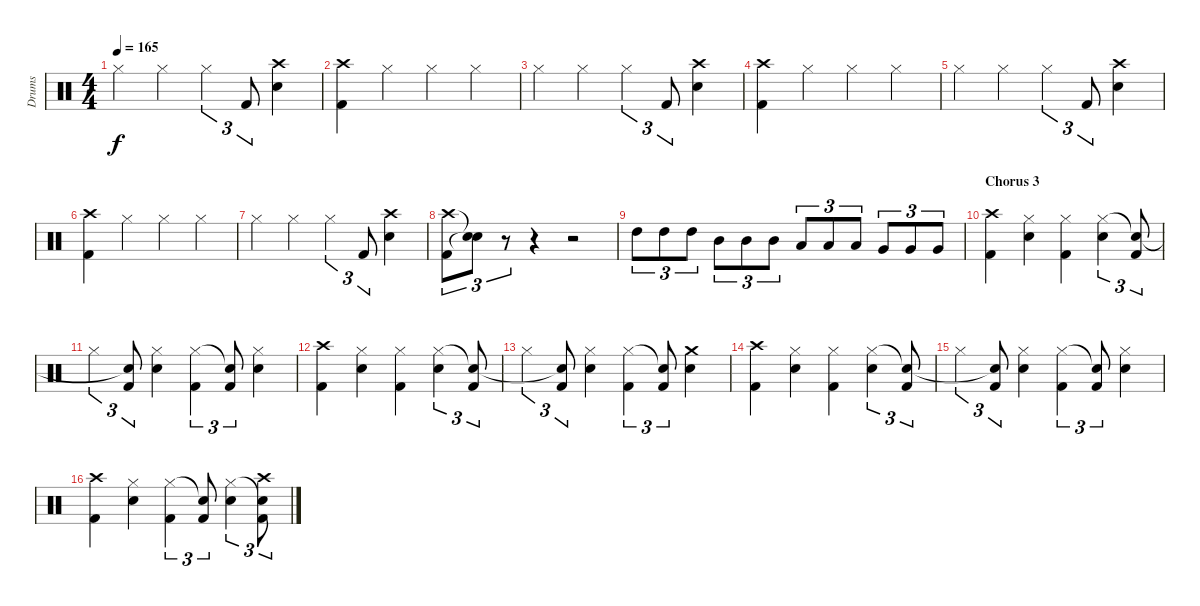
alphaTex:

\track ("Drums" "Drums") {instrument percussion}
\staff {score}
\articulation defaults
\ts (4 4)
\tempo 165
\clef neutral
\ks c "Hi-Hat (closed)".4{dy f} "Hi-Hat (closed)".4 "Hi-Hat (closed)".4{tu (3 2)} "Kick (hit) 2".8{tu (3 2)}
("Snare (hit) 2" "Crash high (hit)").4 |
("Kick (hit) 2" "Crash high (hit)").4 "Hi-Hat (closed)".4 "Hi-Hat (closed)".4 "Hi-Hat (closed)".4 |
"Hi-Hat (closed)".4 "Hi-Hat (closed)".4 "Hi-Hat (closed)".4{tu (3 2)} "Kick (hit) 2".8{tu (3 2)} ("Snare (hit) 2" "Crash high (hit)").4 |
("Kick (hit) 2" "Crash high (hit)").4 "Hi-Hat (closed)".4 "Hi-Hat (closed)".4 "Hi-Hat (closed)".4 |
"Hi-Hat (closed)".4 "Hi-Hat (closed)".4 "Hi-Hat (closed)".4{tu (3 2)} "Kick (hit) 2".8{tu (3 2)} ("Snare (hit) 2" "Crash high (hit)").4 |
("Kick (hit) 2" "Crash high (hit)").4 "Hi-Hat (closed)".4 "Hi-Hat (closed)".4 "Hi-Hat (closed)".4 |
"Hi-Hat (closed)".4 "Hi-Hat (closed)".4 "Hi-Hat (closed)".4{tu (3 2)} "Kick (hit) 2".8{tu (3 2)} ("Snare (hit) 2" "Crash high (hit)").4 |
("Kick (hit) 2" "Crash high (hit)").8{tu (3 2)} ("Snare (hit)"{t} "Snare (hit)"{t}).8{tu (3 2)} r.8{tu (3 2)} r.4 r.2 |
"High Tom (hit)".8{tu (3 2)} "High Tom (hit)".8{tu (3 2)} "High Tom (hit)".8{tu (3 2)} "Mid Tom (hit)".8{tu (3 2)} "Mid Tom (hit)".8{tu (3 2)} "Mid Tom (hit)".8{tu (3 2)} "Low Tom (hit)".8{tu (3 2)} "Low Tom (hit)".8{tu (3 2)} "Low Tom (hit)".8{tu (3 2)} "Very Low Tom (hit)".8{tu (3 2)} "Very Low Tom (hit)".8{tu (3 2)} "Very Low Tom (hit)".8{tu (3 2)} |
\section ("" "Chorus 3")
("Kick (hit) 2" "Crash high (hit)").4 ("Snare (hit) 2" "Hi-Hat (closed)").4 ("Kick (hit) 2" "Hi-Hat (closed)").4 ("Snare (hit) 2" "Hi-Hat (closed)").4{tu (3 2)} ("Kick (hit) 2" "Snare (hit)"{t}).8{tu (3 2)} |
"Hi-Hat (closed)".4{tu (3 2)} ("Kick (hit) 2" "Snare (hit)"{t}).8{tu (3 2)} ("Snare (hit) 2" "Hi-Hat (closed)").4 ("Kick (hit) 2" "Hi-Hat (closed)").4{tu (3 2)} ("Kick (hit) 2" "Snare (hit)"{t}).8{tu (3 2)} ("Snare (hit) 2" "Hi-Hat (closed)").4 |
("Kick (hit) 2" "Crash high (hit)").4 ("Snare (hit) 2" "Hi-Hat (closed)").4 ("Kick (hit) 2" "Hi-Hat (closed)").4 ("Snare (hit) 2" "Hi-Hat (closed)").4{tu (3 2)} ("Kick (hit) 2" "Snare (hit)"{t}).8{tu (3 2)} |
"Hi-Hat (closed)".4{tu (3 2)} ("Kick (hit) 2" "Snare (hit)"{t}).8{tu (3 2)} ("Snare (hit) 2" "Hi-Hat (closed)").4 ("Kick (hit) 2" "Hi-Hat (closed)").4{tu (3 2)} ("Kick (hit) 2" "Snare (hit)"{t}).8{tu (3 2)} ("Snare (hit) 2" "Crash medium (hit)").4 |
("Kick (hit) 2" "Crash high (hit)").4 ("Snare (hit) 2" "Hi-Hat (closed)").4 ("Kick (hit) 2" "Hi-Hat (closed)").4 ("Snare (hit) 2" "Hi-Hat (closed)").4{tu (3 2)} ("Kick (hit) 2" "Snare (hit)"{t}).8{tu (3 2)} |
"Hi-Hat (closed)".4{tu (3 2)} ("Kick (hit) 2" "Snare (hit)"{t}).8{tu (3 2)} ("Snare (hit) 2" "Hi-Hat (closed)").4 ("Kick (hit) 2" "Hi-Hat (closed)").4{tu (3 2)} ("Kick (hit) 2" "Snare (hit)"{t}).8{tu (3 2)} ("Snare (hit) 2" "Hi-Hat (closed)").4 |
("Kick (hit) 2" "Crash high (hit)").4 ("Snare (hit) 2" "Hi-Hat (closed)").4 ("Kick (hit) 2" "Hi-Hat (closed)").4{tu (3 2)} ("Kick (hit) 2" "Snare (hit)"{t}).8{tu (3 2)} ("Snare (hit) 2" "Hi-Hat (closed)").4{tu (3 2)} ("Kick (hit) 2" "Snare (hit)"{t} "Crash high (hit)").8{tu (3 2)}
